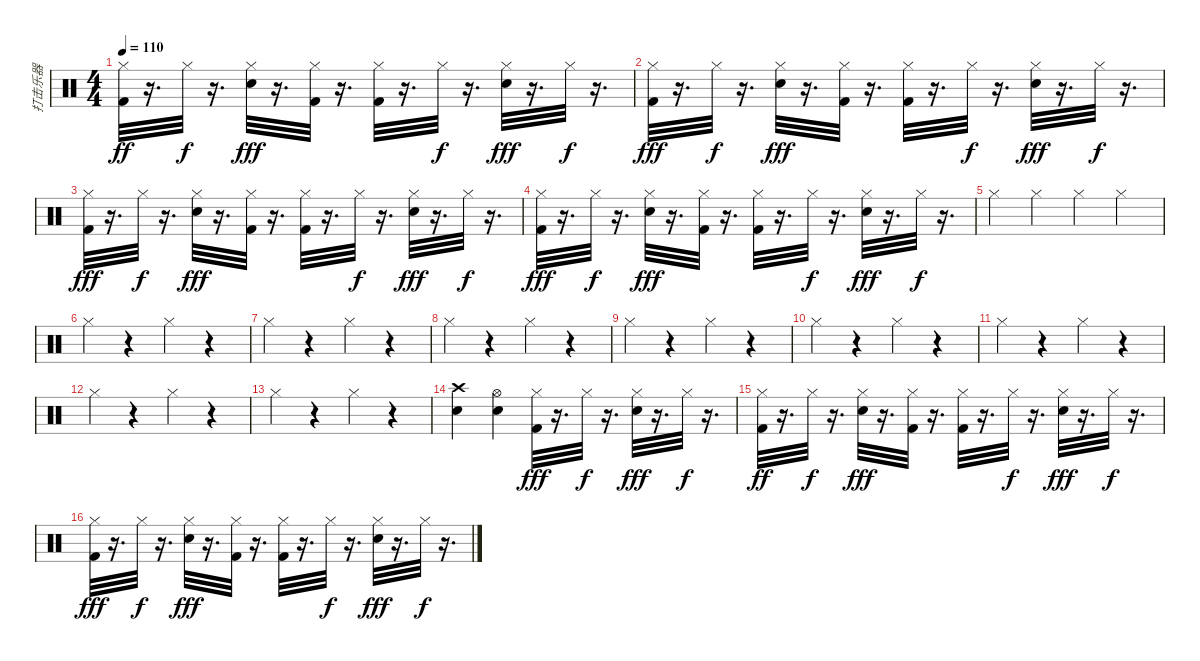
\track ("打击乐器" "打击乐器") {instrument percussion}
\staff {score}
\articulation defaults
\ts (4 4)
\tempo 110
\clef neutral
\ks c
("Kick (hit) 2" "Hi-Hat (closed)").32{dy ff} r.16{d} "Hi-Hat (closed)".32{dy f} r.16{d} ("Hi-Hat (closed)" "Electric Snare (hit)").32{dy fff} r.16{d} ("Kick (hit) 2" "Hi-Hat (closed)").32 r.16{d} ("Kick (hit) 2" "Hi-Hat (closed)").32 r.16{d} "Hi-Hat (closed)".32{dy f} r.16{d} ("Hi-Hat (closed)" "Electric Snare (hit)").32{dy fff} r.16{d} "Hi-Hat (closed)".32{dy f} r.16{d} |
("Kick (hit) 2" "Hi-Hat (closed)").32{dy fff} r.16{d} "Hi-Hat (closed)".32{dy f} r.16{d} ("Hi-Hat (closed)" "Electric Snare (hit)").32{dy fff} r.16{d} ("Kick (hit) 2" "Hi-Hat (closed)").32 r.16{d} ("Kick (hit) 2" "Hi-Hat (closed)").32 r.16{d} "Hi-Hat (closed)".32{dy f} r.16{d} ("Hi-Hat (closed)" "Electric Snare (hit)").32{dy fff} r.16{d} "Hi-Hat (closed)".32{dy f} r.16{d} |
("Kick (hit) 2" "Hi-Hat (closed)").32{dy fff} r.16{d} "Hi-Hat (closed)".32{dy f} r.16{d} ("Hi-Hat (closed)" "Electric Snare (hit)").32{dy fff} r.16{d} ("Kick (hit) 2" "Hi-Hat (closed)").32 r.16{d} ("Kick (hit) 2" "Hi-Hat (closed)").32 r.16{d} "Hi-Hat (closed)".32{dy f} r.16{d} ("Hi-Hat (closed)" "Electric Snare (hit)").32{dy fff} r.16{d} "Hi-Hat (closed)".32{dy f} r.16{d} |
("Kick (hit) 2" "Hi-Hat (closed)").32{dy fff} r.16{d} "Hi-Hat (closed)".32{dy f} r.16{d} ("Hi-Hat (closed)" "Electric Snare (hit)").32{dy fff} r.16{d} ("Kick (hit) 2" "Hi-Hat (closed)").32 r.16{d} ("Kick (hit) 2" "Hi-Hat (closed)").32 r.16{d} "Hi-Hat (closed)".32{dy f} r.16{d} ("Hi-Hat (closed)" "Electric Snare (hit)").32{dy fff} r.16{d} "Hi-Hat (closed)".32{dy f} r.16{d} |
"Hi-Hat (closed)".4 "Hi-Hat (closed)".4 "Hi-Hat (closed)".4 "Hi-Hat (closed)".4 |
"Hi-Hat (closed)".4 r.4 "Hi-Hat (closed)".4 r.4 |
"Hi-Hat (closed)".4 r.4 "Hi-Hat (closed)".4 r.4 |
"Hi-Hat (closed)".4 r.4 "Hi-Hat (closed)".4 r.4 |
"Hi-Hat (closed)".4 r.4 "Hi-Hat (closed)".4 r.4 |
"Hi-Hat (closed)".4 r.4 "Hi-Hat (closed)".4 r.4 |
"Hi-Hat (closed)".4 r.4 "Hi-Hat (closed)".4 r.4 |
"Hi-Hat (closed)".4 r.4 "Hi-Hat (closed)".4 r.4 |
"Hi-Hat (closed)".4 r.4 "Hi-Hat (closed)".4 r.4 |
("Crash high (hit)" "Electric Snare (hit)").4 ("Hi-Hat (open)" "Snare (hit) 2").4 ("Kick (hit) 2" "Hi-Hat (closed)").32{dy fff} r.16{d} "Hi-Hat (closed)".32{dy f} r.16{d} ("Hi-Hat (closed)" "Electric Snare (hit)").32{dy fff} r.16{d} "Hi-Hat (closed)".32{dy f} r.16{d} |
("Kick (hit) 2" "Hi-Hat (closed)").32{dy ff} r.16{d} "Hi-Hat (closed)".32{dy f} r.16{d} ("Hi-Hat (closed)" "Electric Snare (hit)").32{dy fff} r.16{d} ("Kick (hit) 2" "Hi-Hat (closed)").32 r.16{d} ("Kick (hit) 2" "Hi-Hat (closed)").32 r.16{d} "Hi-Hat (closed)".32{dy f} r.16{d} ("Hi-Hat (closed)" "Electric Snare (hit)").32{dy fff} r.16{d} "Hi-Hat (closed)".32{dy f} r.16{d} |
("Kick (hit) 2" "Hi-Hat (closed)").32{dy fff} r.16{d} "Hi-Hat (closed)".32{dy f} r.16{d} ("Hi-Hat (closed)" "Electric Snare (hit)").32{dy fff} r.16{d} ("Kick (hit) 2" "Hi-Hat (closed)").32 r.16{d} ("Kick (hit) 2" "Hi-Hat (closed)").32 r.16{d} "Hi-Hat (closed)".32{dy f} r.16{d} ("Hi-Hat (closed)" "Electric Snare (hit)").32{dy fff} r.16{d} "Hi-Hat (closed)".32{dy f} r.16{d}
